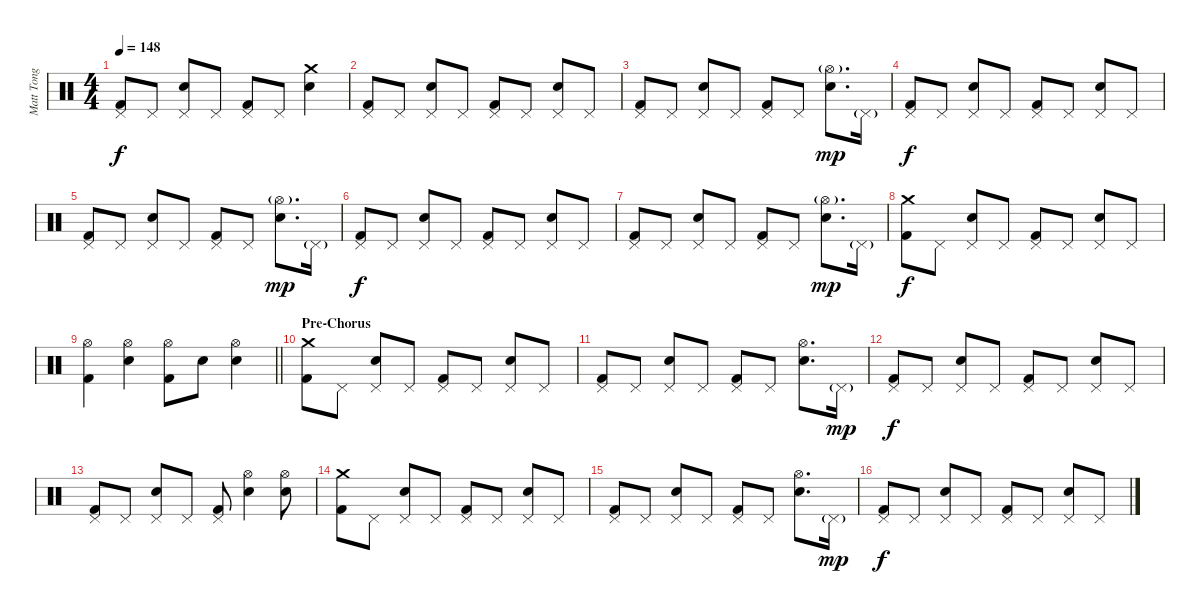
\track ("Matt Tong" "Matt Tong") {instrument percussion}
\staff {score}
\articulation defaults
\ts (4 4)
\tempo 148
\clef neutral
\ks c
("Pedal Hi-Hat (hit)" "Kick (hit) 2").8{dy f} "Pedal Hi-Hat (hit)".8 ("Pedal Hi-Hat (hit)" "Electric Snare (hit)").8 "Pedal Hi-Hat (hit)".8 ("Pedal Hi-Hat (hit)" "Kick (hit) 2").8 "Pedal Hi-Hat (hit)".8 ("Crash medium (hit)" "Electric Snare (hit)").4 |
("Pedal Hi-Hat (hit)" "Kick (hit) 2").8 "Pedal Hi-Hat (hit)".8 ("Pedal Hi-Hat (hit)" "Electric Snare (hit)").8 "Pedal Hi-Hat (hit)".8 ("Pedal Hi-Hat (hit)" "Kick (hit) 2").8 "Pedal Hi-Hat (hit)".8 ("Pedal Hi-Hat (hit)" "Electric Snare (hit)").8 "Pedal Hi-Hat (hit)".8 |
("Pedal Hi-Hat (hit)" "Kick (hit) 2").8 "Pedal Hi-Hat (hit)".8 ("Pedal Hi-Hat (hit)" "Electric Snare (hit)").8 "Pedal Hi-Hat (hit)".8 ("Pedal Hi-Hat (hit)" "Kick (hit) 2").8 "Pedal Hi-Hat (hit)".8 ("Hi-Hat (open)"{g} "Electric Snare (hit)").8{d dy mp} "Pedal Hi-Hat (hit)"{g}.16 |
("Pedal Hi-Hat (hit)" "Kick (hit) 2").8{dy f} "Pedal Hi-Hat (hit)".8 ("Pedal Hi-Hat (hit)" "Electric Snare (hit)").8 "Pedal Hi-Hat (hit)".8 ("Pedal Hi-Hat (hit)" "Kick (hit) 2").8 "Pedal Hi-Hat (hit)".8 ("Pedal Hi-Hat (hit)" "Electric Snare (hit)").8 "Pedal Hi-Hat (hit)".8 |
("Pedal Hi-Hat (hit)" "Kick (hit) 2").8 "Pedal Hi-Hat (hit)".8 ("Pedal Hi-Hat (hit)" "Electric Snare (hit)").8 "Pedal Hi-Hat (hit)".8 ("Pedal Hi-Hat (hit)" "Kick (hit) 2").8 "Pedal Hi-Hat (hit)".8 ("Hi-Hat (open)"{g} "Electric Snare (hit)").8{d dy mp} "Pedal Hi-Hat (hit)"{g}.16 |
("Pedal Hi-Hat (hit)" "Kick (hit) 2").8{dy f} "Pedal Hi-Hat (hit)".8 ("Pedal Hi-Hat (hit)" "Electric Snare (hit)").8 "Pedal Hi-Hat (hit)".8 ("Pedal Hi-Hat (hit)" "Kick (hit) 2").8 "Pedal Hi-Hat (hit)".8 ("Pedal Hi-Hat (hit)" "Electric Snare (hit)").8 "Pedal Hi-Hat (hit)".8 |
("Pedal Hi-Hat (hit)" "Kick (hit) 2").8 "Pedal Hi-Hat (hit)".8 ("Pedal Hi-Hat (hit)" "Electric Snare (hit)").8 "Pedal Hi-Hat (hit)".8 ("Pedal Hi-Hat (hit)" "Kick (hit) 2").8 "Pedal Hi-Hat (hit)".8 ("Hi-Hat (open)"{g} "Electric Snare (hit)").8{d dy mp} "Pedal Hi-Hat (hit)"{g}.16 |
("Crash medium (hit)" "Kick (hit) 2").8{dy f} "Pedal Hi-Hat (hit)".8 ("Pedal Hi-Hat (hit)" "Electric Snare (hit)").8 "Pedal Hi-Hat (hit)".8 ("Pedal Hi-Hat (hit)" "Kick (hit) 2").8 "Pedal Hi-Hat (hit)".8 ("Pedal Hi-Hat (hit)" "Electric Snare (hit)").8 "Pedal Hi-Hat (hit)".8 |
\barLineRight lightlight
("Hi-Hat (open)" "Kick (hit) 2").4 ("Hi-Hat (open)" "Electric Snare (hit)").4 ("Hi-Hat (open)" "Kick (hit) 2").8 "Electric Snare (hit)".8 ("Hi-Hat (open)" "Electric Snare (hit)").4 |
\section ("" "Pre-Chorus")
("Crash medium (hit)" "Kick (hit) 2").8 "Pedal Hi-Hat (hit)".8 ("Pedal Hi-Hat (hit)" "Electric Snare (hit)").8 "Pedal Hi-Hat (hit)".8 ("Pedal Hi-Hat (hit)" "Kick (hit) 2").8 "Pedal Hi-Hat (hit)".8 ("Pedal Hi-Hat (hit)" "Electric Snare (hit)").8 "Pedal Hi-Hat (hit)".8 |
("Pedal Hi-Hat (hit)" "Kick (hit) 2").8 "Pedal Hi-Hat (hit)".8 ("Pedal Hi-Hat (hit)" "Electric Snare (hit)").8 "Pedal Hi-Hat (hit)".8 ("Pedal Hi-Hat (hit)" "Kick (hit) 2").8 "Pedal Hi-Hat (hit)".8 ("Hi-Hat (open)" "Electric Snare (hit)").8{d} "Pedal Hi-Hat (hit)"{g}.16{dy mp} |
("Pedal Hi-Hat (hit)" "Kick (hit) 2").8{dy f} "Pedal Hi-Hat (hit)".8 ("Pedal Hi-Hat (hit)" "Electric Snare (hit)").8 "Pedal Hi-Hat (hit)".8 ("Pedal Hi-Hat (hit)" "Kick (hit) 2").8 "Pedal Hi-Hat (hit)".8 ("Pedal Hi-Hat (hit)" "Electric Snare (hit)").8 "Pedal Hi-Hat (hit)".8 |
("Pedal Hi-Hat (hit)" "Kick (hit) 2").8 "Pedal Hi-Hat (hit)".8 ("Pedal Hi-Hat (hit)" "Electric Snare (hit)").8 "Pedal Hi-Hat (hit)".8 ("Pedal Hi-Hat (hit)" "Kick (hit) 2").8 ("Hi-Hat (open)" "Electric Snare (hit)").4 ("Hi-Hat (open)" "Electric Snare (hit)").8 |
("Crash medium (hit)" "Kick (hit) 2").8 "Pedal Hi-Hat (hit)".8 ("Pedal Hi-Hat (hit)" "Electric Snare (hit)").8 "Pedal Hi-Hat (hit)".8 ("Pedal Hi-Hat (hit)" "Kick (hit) 2").8 "Pedal Hi-Hat (hit)".8 ("Pedal Hi-Hat (hit)" "Electric Snare (hit)").8 "Pedal Hi-Hat (hit)".8 |
("Pedal Hi-Hat (hit)" "Kick (hit) 2").8 "Pedal Hi-Hat (hit)".8 ("Pedal Hi-Hat (hit)" "Electric Snare (hit)").8 "Pedal Hi-Hat (hit)".8 ("Pedal Hi-Hat (hit)" "Kick (hit) 2").8 "Pedal Hi-Hat (hit)".8 ("Hi-Hat (open)" "Electric Snare (hit)").8{d} "Pedal Hi-Hat (hit)"{g}.16{dy mp} |
("Pedal Hi-Hat (hit)" "Kick (hit) 2").8{dy f} "Pedal Hi-Hat (hit)".8 ("Pedal Hi-Hat (hit)" "Electric Snare (hit)").8 "Pedal Hi-Hat (hit)".8 ("Pedal Hi-Hat (hit)" "Kick (hit) 2").8 "Pedal Hi-Hat (hit)".8 ("Pedal Hi-Hat (hit)" "Electric Snare (hit)").8 "Pedal Hi-Hat (hit)".8
